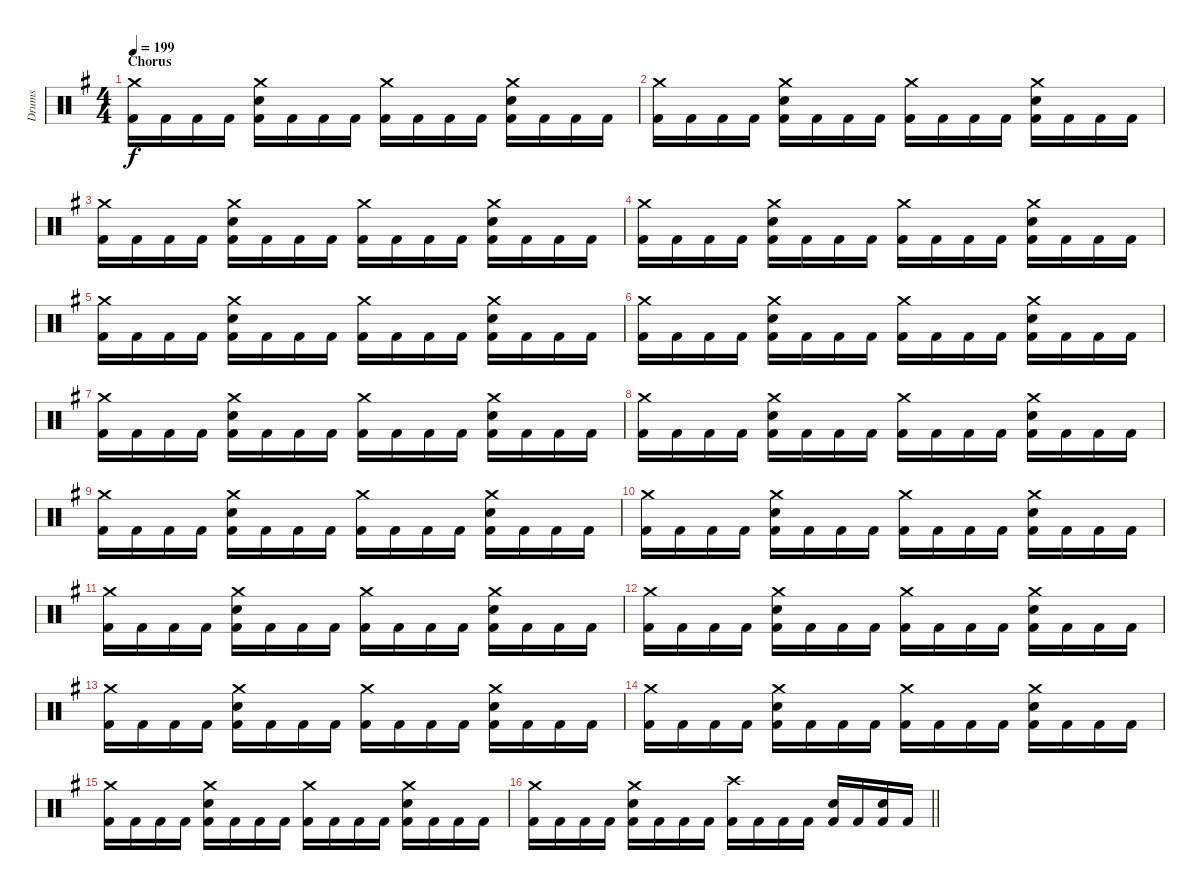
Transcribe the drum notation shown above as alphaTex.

\track ("Drums" "Drums") {instrument percussion}
\staff {score}
\articulation defaults
\ts (4 4)
\section ("" "Chorus")
\tempo 199
\clef neutral
\ks eminor
("Crash medium (hit)" "Kick (hit) 2").16{dy f} "Kick (hit) 2".16 "Kick (hit) 2".16 "Kick (hit) 2".16 ("Crash medium (hit)" "Electric Snare (hit)" "Kick (hit) 2").16 "Kick (hit) 2".16 "Kick (hit) 2".16 "Kick (hit) 2".16 ("Crash medium (hit)" "Kick (hit) 2").16 "Kick (hit) 2".16 "Kick (hit) 2".16 "Kick (hit) 2".16 ("Crash medium (hit)" "Electric Snare (hit)" "Kick (hit) 2").16 "Kick (hit) 2".16 "Kick (hit) 2".16 "Kick (hit) 2".16 |
("Crash medium (hit)" "Kick (hit) 2").16 "Kick (hit) 2".16 "Kick (hit) 2".16 "Kick (hit) 2".16 ("Crash medium (hit)" "Electric Snare (hit)" "Kick (hit) 2").16 "Kick (hit) 2".16 "Kick (hit) 2".16 "Kick (hit) 2".16 ("Crash medium (hit)" "Kick (hit) 2").16 "Kick (hit) 2".16 "Kick (hit) 2".16 "Kick (hit) 2".16 ("Crash medium (hit)" "Electric Snare (hit)" "Kick (hit) 2").16 "Kick (hit) 2".16 "Kick (hit) 2".16 "Kick (hit) 2".16 |
("Crash medium (hit)" "Kick (hit) 2").16 "Kick (hit) 2".16 "Kick (hit) 2".16 "Kick (hit) 2".16 ("Crash medium (hit)" "Electric Snare (hit)" "Kick (hit) 2").16 "Kick (hit) 2".16 "Kick (hit) 2".16 "Kick (hit) 2".16 ("Crash medium (hit)" "Kick (hit) 2").16 "Kick (hit) 2".16 "Kick (hit) 2".16 "Kick (hit) 2".16 ("Crash medium (hit)" "Electric Snare (hit)" "Kick (hit) 2").16 "Kick (hit) 2".16 "Kick (hit) 2".16 "Kick (hit) 2".16 |
("Crash medium (hit)" "Kick (hit) 2").16 "Kick (hit) 2".16 "Kick (hit) 2".16 "Kick (hit) 2".16 ("Crash medium (hit)" "Electric Snare (hit)" "Kick (hit) 2").16 "Kick (hit) 2".16 "Kick (hit) 2".16 "Kick (hit) 2".16 ("Crash medium (hit)" "Kick (hit) 2").16 "Kick (hit) 2".16 "Kick (hit) 2".16 "Kick (hit) 2".16 ("Crash medium (hit)" "Electric Snare (hit)" "Kick (hit) 2").16 "Kick (hit) 2".16 "Kick (hit) 2".16 "Kick (hit) 2".16 |
("Crash medium (hit)" "Kick (hit) 2").16 "Kick (hit) 2".16 "Kick (hit) 2".16 "Kick (hit) 2".16 ("Crash medium (hit)" "Electric Snare (hit)" "Kick (hit) 2").16 "Kick (hit) 2".16 "Kick (hit) 2".16 "Kick (hit) 2".16 ("Crash medium (hit)" "Kick (hit) 2").16 "Kick (hit) 2".16 "Kick (hit) 2".16 "Kick (hit) 2".16 ("Crash medium (hit)" "Electric Snare (hit)" "Kick (hit) 2").16 "Kick (hit) 2".16 "Kick (hit) 2".16 "Kick (hit) 2".16 |
("Crash medium (hit)" "Kick (hit) 2").16 "Kick (hit) 2".16 "Kick (hit) 2".16 "Kick (hit) 2".16 ("Crash medium (hit)" "Electric Snare (hit)" "Kick (hit) 2").16 "Kick (hit) 2".16 "Kick (hit) 2".16 "Kick (hit) 2".16 ("Crash medium (hit)" "Kick (hit) 2").16 "Kick (hit) 2".16 "Kick (hit) 2".16 "Kick (hit) 2".16 ("Crash medium (hit)" "Electric Snare (hit)" "Kick (hit) 2").16 "Kick (hit) 2".16 "Kick (hit) 2".16 "Kick (hit) 2".16 |
("Crash medium (hit)" "Kick (hit) 2").16 "Kick (hit) 2".16 "Kick (hit) 2".16 "Kick (hit) 2".16 ("Crash medium (hit)" "Electric Snare (hit)" "Kick (hit) 2").16 "Kick (hit) 2".16 "Kick (hit) 2".16 "Kick (hit) 2".16 ("Crash medium (hit)" "Kick (hit) 2").16 "Kick (hit) 2".16 "Kick (hit) 2".16 "Kick (hit) 2".16 ("Crash medium (hit)" "Electric Snare (hit)" "Kick (hit) 2").16 "Kick (hit) 2".16 "Kick (hit) 2".16 "Kick (hit) 2".16 |
("Crash medium (hit)" "Kick (hit) 2").16 "Kick (hit) 2".16 "Kick (hit) 2".16 "Kick (hit) 2".16 ("Crash medium (hit)" "Electric Snare (hit)" "Kick (hit) 2").16 "Kick (hit) 2".16 "Kick (hit) 2".16 "Kick (hit) 2".16 ("Crash medium (hit)" "Kick (hit) 2").16 "Kick (hit) 2".16 "Kick (hit) 2".16 "Kick (hit) 2".16 ("Crash medium (hit)" "Electric Snare (hit)" "Kick (hit) 2").16 "Kick (hit) 2".16 "Kick (hit) 2".16 "Kick (hit) 2".16 |
("Crash medium (hit)" "Kick (hit) 2").16 "Kick (hit) 2".16 "Kick (hit) 2".16 "Kick (hit) 2".16 ("Crash medium (hit)" "Electric Snare (hit)" "Kick (hit) 2").16 "Kick (hit) 2".16 "Kick (hit) 2".16 "Kick (hit) 2".16 ("Crash medium (hit)" "Kick (hit) 2").16 "Kick (hit) 2".16 "Kick (hit) 2".16 "Kick (hit) 2".16 ("Crash medium (hit)" "Electric Snare (hit)" "Kick (hit) 2").16 "Kick (hit) 2".16 "Kick (hit) 2".16 "Kick (hit) 2".16 |
("Crash medium (hit)" "Kick (hit) 2").16 "Kick (hit) 2".16 "Kick (hit) 2".16 "Kick (hit) 2".16 ("Crash medium (hit)" "Electric Snare (hit)" "Kick (hit) 2").16 "Kick (hit) 2".16 "Kick (hit) 2".16 "Kick (hit) 2".16 ("Crash medium (hit)" "Kick (hit) 2").16 "Kick (hit) 2".16 "Kick (hit) 2".16 "Kick (hit) 2".16 ("Crash medium (hit)" "Electric Snare (hit)" "Kick (hit) 2").16 "Kick (hit) 2".16 "Kick (hit) 2".16 "Kick (hit) 2".16 |
("Crash medium (hit)" "Kick (hit) 2").16 "Kick (hit) 2".16 "Kick (hit) 2".16 "Kick (hit) 2".16 ("Crash medium (hit)" "Electric Snare (hit)" "Kick (hit) 2").16 "Kick (hit) 2".16 "Kick (hit) 2".16 "Kick (hit) 2".16 ("Crash medium (hit)" "Kick (hit) 2").16 "Kick (hit) 2".16 "Kick (hit) 2".16 "Kick (hit) 2".16 ("Crash medium (hit)" "Electric Snare (hit)" "Kick (hit) 2").16 "Kick (hit) 2".16 "Kick (hit) 2".16 "Kick (hit) 2".16 |
("Crash medium (hit)" "Kick (hit) 2").16 "Kick (hit) 2".16 "Kick (hit) 2".16 "Kick (hit) 2".16 ("Crash medium (hit)" "Electric Snare (hit)" "Kick (hit) 2").16 "Kick (hit) 2".16 "Kick (hit) 2".16 "Kick (hit) 2".16 ("Crash medium (hit)" "Kick (hit) 2").16 "Kick (hit) 2".16 "Kick (hit) 2".16 "Kick (hit) 2".16 ("Crash medium (hit)" "Electric Snare (hit)" "Kick (hit) 2").16 "Kick (hit) 2".16 "Kick (hit) 2".16 "Kick (hit) 2".16 |
("Crash medium (hit)" "Kick (hit) 2").16 "Kick (hit) 2".16 "Kick (hit) 2".16 "Kick (hit) 2".16 ("Crash medium (hit)" "Electric Snare (hit)" "Kick (hit) 2").16 "Kick (hit) 2".16 "Kick (hit) 2".16 "Kick (hit) 2".16 ("Crash medium (hit)" "Kick (hit) 2").16 "Kick (hit) 2".16 "Kick (hit) 2".16 "Kick (hit) 2".16 ("Crash medium (hit)" "Electric Snare (hit)" "Kick (hit) 2").16 "Kick (hit) 2".16 "Kick (hit) 2".16 "Kick (hit) 2".16 |
("Crash medium (hit)" "Kick (hit) 2").16 "Kick (hit) 2".16 "Kick (hit) 2".16 "Kick (hit) 2".16 ("Crash medium (hit)" "Electric Snare (hit)" "Kick (hit) 2").16 "Kick (hit) 2".16 "Kick (hit) 2".16 "Kick (hit) 2".16 ("Crash medium (hit)" "Kick (hit) 2").16 "Kick (hit) 2".16 "Kick (hit) 2".16 "Kick (hit) 2".16 ("Crash medium (hit)" "Electric Snare (hit)" "Kick (hit) 2").16 "Kick (hit) 2".16 "Kick (hit) 2".16 "Kick (hit) 2".16 |
("Crash medium (hit)" "Kick (hit) 2").16 "Kick (hit) 2".16 "Kick (hit) 2".16 "Kick (hit) 2".16 ("Crash medium (hit)" "Electric Snare (hit)" "Kick (hit) 2").16 "Kick (hit) 2".16 "Kick (hit) 2".16 "Kick (hit) 2".16 ("Crash medium (hit)" "Kick (hit) 2").16 "Kick (hit) 2".16 "Kick (hit) 2".16 "Kick (hit) 2".16 ("Crash medium (hit)" "Electric Snare (hit)" "Kick (hit) 2").16 "Kick (hit) 2".16 "Kick (hit) 2".16 "Kick (hit) 2".16 |
\barLineRight lightlight
("Crash medium (hit)" "Kick (hit) 2").16 "Kick (hit) 2".16 "Kick (hit) 2".16 "Kick (hit) 2".16 ("Crash medium (hit)" "Electric Snare (hit)" "Kick (hit) 2").16 "Kick (hit) 2".16 "Kick (hit) 2".16 "Kick (hit) 2".16 ("Crash high (hit)" "Kick (hit) 2").16 "Kick (hit) 2".16 "Kick (hit) 2".16 "Kick (hit) 2".16 ("Electric Snare (hit)" "Kick (hit) 2").16 "Kick (hit) 2".16 ("Electric Snare (hit)" "Kick (hit) 2").16 "Kick (hit) 2".16
